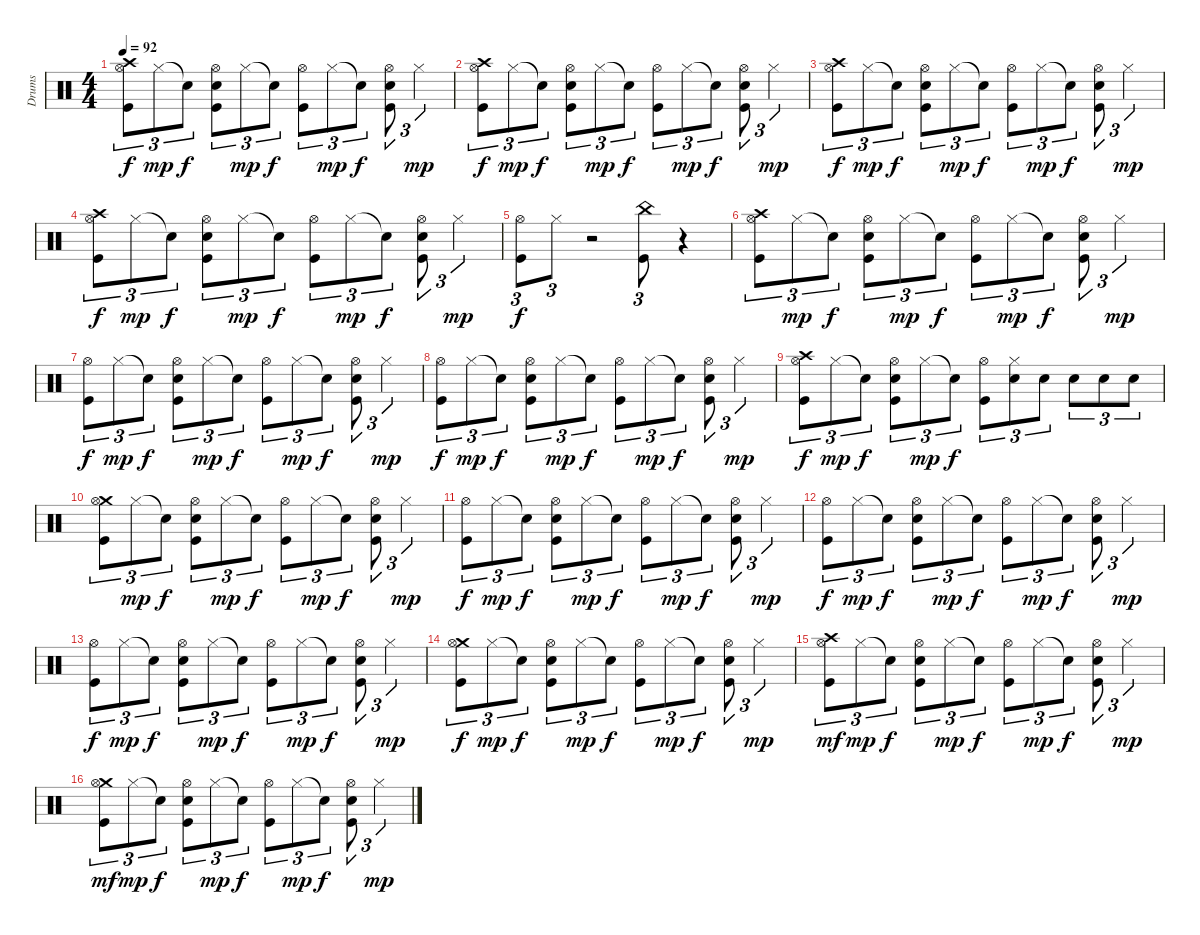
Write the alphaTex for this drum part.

\track ("Drums" "Drums") {instrument percussion}
\staff {score}
\articulation defaults
\ts (4 4)
\tempo 92
\clef neutral
\ks c
("Hi-Hat (open)" "Crash high (hit)" "Kick (hit)").8{tu (3 2) dy f} "Hi-Hat (closed)".8{tu (3 2) dy mp} "Snare (hit)"{t}.8{tu (3 2) dy f} ("Hi-Hat (open)" "Snare (hit) 2" "Kick (hit)").8{tu (3 2)} "Hi-Hat (closed)".8{tu (3 2) dy mp} "Snare (hit)"{t}.8{tu (3 2) dy f} ("Hi-Hat (open)" "Kick (hit)").8{tu (3 2)} "Hi-Hat (closed)".8{tu (3 2) dy mp} "Snare (hit)"{t}.8{tu (3 2) dy f} ("Hi-Hat (open)" "Snare (hit) 2" "Kick (hit)").8{tu (3 2)} "Hi-Hat (closed)".4{tu (3 2) dy mp} |
("Crash high (hit)" "Kick (hit)" "Hi-Hat (open)").8{tu (3 2) dy f} "Hi-Hat (closed)".8{tu (3 2) dy mp} "Snare (hit)"{t}.8{tu (3 2) dy f} ("Snare (hit) 2" "Kick (hit)" "Hi-Hat (open)").8{tu (3 2)} "Hi-Hat (closed)".8{tu (3 2) dy mp} "Snare (hit)"{t}.8{tu (3 2) dy f} ("Kick (hit)" "Hi-Hat (open)").8{tu (3 2)} "Hi-Hat (closed)".8{tu (3 2) dy mp} "Snare (hit)"{t}.8{tu (3 2) dy f} ("Snare (hit) 2" "Kick (hit)" "Hi-Hat (open)").8{tu (3 2)} "Hi-Hat (closed)".4{tu (3 2) dy mp} |
("Hi-Hat (open)" "Crash high (hit)" "Kick (hit)").8{tu (3 2) dy f} "Hi-Hat (closed)".8{tu (3 2) dy mp} "Snare (hit)"{t}.8{tu (3 2) dy f} ("Hi-Hat (open)" "Snare (hit) 2" "Kick (hit)").8{tu (3 2)} "Hi-Hat (closed)".8{tu (3 2) dy mp} "Snare (hit)"{t}.8{tu (3 2) dy f} ("Hi-Hat (open)" "Kick (hit)").8{tu (3 2)} "Hi-Hat (closed)".8{tu (3 2) dy mp} "Snare (hit)"{t}.8{tu (3 2) dy f} ("Hi-Hat (open)" "Snare (hit) 2" "Kick (hit)").8{tu (3 2)} "Hi-Hat (closed)".4{tu (3 2) dy mp} |
("Crash high (hit)" "Kick (hit)" "Hi-Hat (open)").8{tu (3 2) dy f} "Hi-Hat (closed)".8{tu (3 2) dy mp} "Snare (hit)"{t}.8{tu (3 2) dy f} ("Snare (hit) 2" "Kick (hit)" "Hi-Hat (open)").8{tu (3 2)} "Hi-Hat (closed)".8{tu (3 2) dy mp} "Snare (hit)"{t}.8{tu (3 2) dy f} ("Kick (hit)" "Hi-Hat (open)").8{tu (3 2)} "Hi-Hat (closed)".8{tu (3 2) dy mp} "Snare (hit)"{t}.8{tu (3 2) dy f} ("Snare (hit) 2" "Kick (hit)" "Hi-Hat (open)").8{tu (3 2)} "Hi-Hat (closed)".4{tu (3 2) dy mp} |
("Hi-Hat (open)" "Kick (hit)").8{tu (3 2) dy f} "Hi-Hat (closed)".8{tu (3 2)} r.2 ("China (hit)" "Kick (hit)").8{tu (3 2)} r.4 |
("Crash high (hit)" "Kick (hit)" "Hi-Hat (open)").8{tu (3 2)} "Hi-Hat (closed)".8{tu (3 2) dy mp} "Snare (hit)"{t}.8{tu (3 2) dy f} ("Snare (hit) 2" "Kick (hit)" "Hi-Hat (open)").8{tu (3 2)} "Hi-Hat (closed)".8{tu (3 2) dy mp} "Snare (hit)"{t}.8{tu (3 2) dy f} ("Kick (hit)" "Hi-Hat (open)").8{tu (3 2)} "Hi-Hat (closed)".8{tu (3 2) dy mp} "Snare (hit)"{t}.8{tu (3 2) dy f} ("Snare (hit) 2" "Kick (hit)" "Hi-Hat (open)").8{tu (3 2)} "Hi-Hat (closed)".4{tu (3 2) dy mp} |
("Hi-Hat (open)" "Kick (hit)").8{tu (3 2) dy f} "Hi-Hat (closed)".8{tu (3 2) dy mp} "Snare (hit)"{t}.8{tu (3 2) dy f} ("Hi-Hat (open)" "Snare (hit) 2" "Kick (hit)").8{tu (3 2)} "Hi-Hat (closed)".8{tu (3 2) dy mp} "Snare (hit)"{t}.8{tu (3 2) dy f} ("Hi-Hat (open)" "Kick (hit)").8{tu (3 2)} "Hi-Hat (closed)".8{tu (3 2) dy mp} "Snare (hit)"{t}.8{tu (3 2) dy f} ("Hi-Hat (open)" "Snare (hit) 2" "Kick (hit)").8{tu (3 2)} "Hi-Hat (closed)".4{tu (3 2) dy mp} |
("Kick (hit)" "Hi-Hat (open)").8{tu (3 2) dy f} "Hi-Hat (closed)".8{tu (3 2) dy mp} "Snare (hit)"{t}.8{tu (3 2) dy f} ("Snare (hit) 2" "Kick (hit)" "Hi-Hat (open)").8{tu (3 2)} "Hi-Hat (closed)".8{tu (3 2) dy mp} "Snare (hit)"{t}.8{tu (3 2) dy f} ("Kick (hit)" "Hi-Hat (open)").8{tu (3 2)} "Hi-Hat (closed)".8{tu (3 2) dy mp} "Snare (hit)"{t}.8{tu (3 2) dy f} ("Snare (hit) 2" "Kick (hit)" "Hi-Hat (open)").8{tu (3 2)} "Hi-Hat (closed)".4{tu (3 2) dy mp} |
("Hi-Hat (open)" "Crash high (hit)" "Kick (hit)").8{tu (3 2) dy f} "Hi-Hat (closed)".8{tu (3 2) dy mp} "Snare (hit)"{t}.8{tu (3 2) dy f} ("Hi-Hat (open)" "Snare (hit) 2" "Kick (hit)").8{tu (3 2)} "Hi-Hat (closed)".8{tu (3 2) dy mp} "Snare (hit)"{t}.8{tu (3 2) dy f} ("Hi-Hat (open)" "Kick (hit)").8{tu (3 2)} ("Electric Snare (hit)" "Hi-Hat (closed)").8{tu (3 2)} "Electric Snare (hit)".8{tu (3 2)} "Electric Snare (hit)".8{tu (3 2)} "Electric Snare (hit)".8{tu (3 2)} "Electric Snare (hit)".8{tu (3 2)} |
("Crash medium (hit)" "Kick (hit)" "Hi-Hat (open)").8{tu (3 2)} "Hi-Hat (closed)".8{tu (3 2) dy mp} "Snare (hit)"{t}.8{tu (3 2) dy f} ("Kick (hit)" "Hi-Hat (open)" "Snare (hit) 2").8{tu (3 2)} "Hi-Hat (closed)".8{tu (3 2) dy mp} "Snare (hit)"{t}.8{tu (3 2) dy f} ("Hi-Hat (open)" "Kick (hit)").8{tu (3 2)} "Hi-Hat (closed)".8{tu (3 2) dy mp} "Snare (hit)"{t}.8{tu (3 2) dy f} ("Kick (hit)" "Snare (hit) 2" "Hi-Hat (open)").8{tu (3 2)} "Hi-Hat (closed)".4{tu (3 2) dy mp} |
("Kick (hit)" "Hi-Hat (open)").8{tu (3 2) dy f} "Hi-Hat (closed)".8{tu (3 2) dy mp} "Snare (hit)"{t}.8{tu (3 2) dy f} ("Kick (hit)" "Hi-Hat (open)" "Snare (hit) 2").8{tu (3 2)} "Hi-Hat (closed)".8{tu (3 2) dy mp} "Snare (hit)"{t}.8{tu (3 2) dy f} ("Hi-Hat (open)" "Kick (hit)").8{tu (3 2)} "Hi-Hat (closed)".8{tu (3 2) dy mp} "Snare (hit)"{t}.8{tu (3 2) dy f} ("Kick (hit)" "Snare (hit) 2" "Hi-Hat (open)").8{tu (3 2)} "Hi-Hat (closed)".4{tu (3 2) dy mp} |
("Kick (hit)" "Hi-Hat (open)").8{tu (3 2) dy f} "Hi-Hat (closed)".8{tu (3 2) dy mp} "Snare (hit)"{t}.8{tu (3 2) dy f} ("Kick (hit)" "Hi-Hat (open)" "Snare (hit) 2").8{tu (3 2)} "Hi-Hat (closed)".8{tu (3 2) dy mp} "Snare (hit)"{t}.8{tu (3 2) dy f} ("Hi-Hat (open)" "Kick (hit)").8{tu (3 2)} "Hi-Hat (closed)".8{tu (3 2) dy mp} "Snare (hit)"{t}.8{tu (3 2) dy f} ("Kick (hit)" "Snare (hit) 2" "Hi-Hat (open)").8{tu (3 2)} "Hi-Hat (closed)".4{tu (3 2) dy mp} |
("Kick (hit)" "Hi-Hat (open)").8{tu (3 2) dy f} "Hi-Hat (closed)".8{tu (3 2) dy mp} "Snare (hit)"{t}.8{tu (3 2) dy f} ("Kick (hit)" "Hi-Hat (open)" "Snare (hit) 2").8{tu (3 2)} "Hi-Hat (closed)".8{tu (3 2) dy mp} "Snare (hit)"{t}.8{tu (3 2) dy f} ("Hi-Hat (open)" "Kick (hit)").8{tu (3 2)} "Hi-Hat (closed)".8{tu (3 2) dy mp} "Snare (hit)"{t}.8{tu (3 2) dy f} ("Kick (hit)" "Snare (hit) 2" "Hi-Hat (open)").8{tu (3 2)} "Hi-Hat (closed)".4{tu (3 2) dy mp} |
("Crash medium (hit)" "Kick (hit)" "Hi-Hat (open)").8{tu (3 2) dy f} "Hi-Hat (closed)".8{tu (3 2) dy mp} "Snare (hit)"{t}.8{tu (3 2) dy f} ("Kick (hit)" "Hi-Hat (open)" "Snare (hit) 2").8{tu (3 2)} "Hi-Hat (closed)".8{tu (3 2) dy mp} "Snare (hit)"{t}.8{tu (3 2) dy f} ("Hi-Hat (open)" "Kick (hit)").8{tu (3 2)} "Hi-Hat (closed)".8{tu (3 2) dy mp} "Snare (hit)"{t}.8{tu (3 2) dy f} ("Kick (hit)" "Snare (hit) 2" "Hi-Hat (open)").8{tu (3 2)} "Hi-Hat (closed)".4{tu (3 2) dy mp} |
("Crash high (hit)" "Kick (hit)" "Hi-Hat (open)").8{tu (3 2) dy mf} "Hi-Hat (closed)".8{tu (3 2) dy mp} "Snare (hit)"{t}.8{tu (3 2) dy f} ("Kick (hit)" "Hi-Hat (open)" "Snare (hit) 2").8{tu (3 2)} "Hi-Hat (closed)".8{tu (3 2) dy mp} "Snare (hit)"{t}.8{tu (3 2) dy f} ("Hi-Hat (open)" "Kick (hit)").8{tu (3 2)} "Hi-Hat (closed)".8{tu (3 2) dy mp} "Snare (hit)"{t}.8{tu (3 2) dy f} ("Kick (hit)" "Snare (hit) 2" "Hi-Hat (open)").8{tu (3 2)} "Hi-Hat (closed)".4{tu (3 2) dy mp} |
("Crash medium (hit)" "Kick (hit)" "Hi-Hat (open)").8{tu (3 2) dy mf} "Hi-Hat (closed)".8{tu (3 2) dy mp} "Snare (hit)"{t}.8{tu (3 2) dy f} ("Kick (hit)" "Hi-Hat (open)" "Snare (hit) 2").8{tu (3 2)} "Hi-Hat (closed)".8{tu (3 2) dy mp} "Snare (hit)"{t}.8{tu (3 2) dy f} ("Hi-Hat (open)" "Kick (hit)").8{tu (3 2)} "Hi-Hat (closed)".8{tu (3 2) dy mp} "Snare (hit)"{t}.8{tu (3 2) dy f} ("Kick (hit)" "Snare (hit) 2" "Hi-Hat (open)").8{tu (3 2)} "Hi-Hat (closed)".4{tu (3 2) dy mp}
